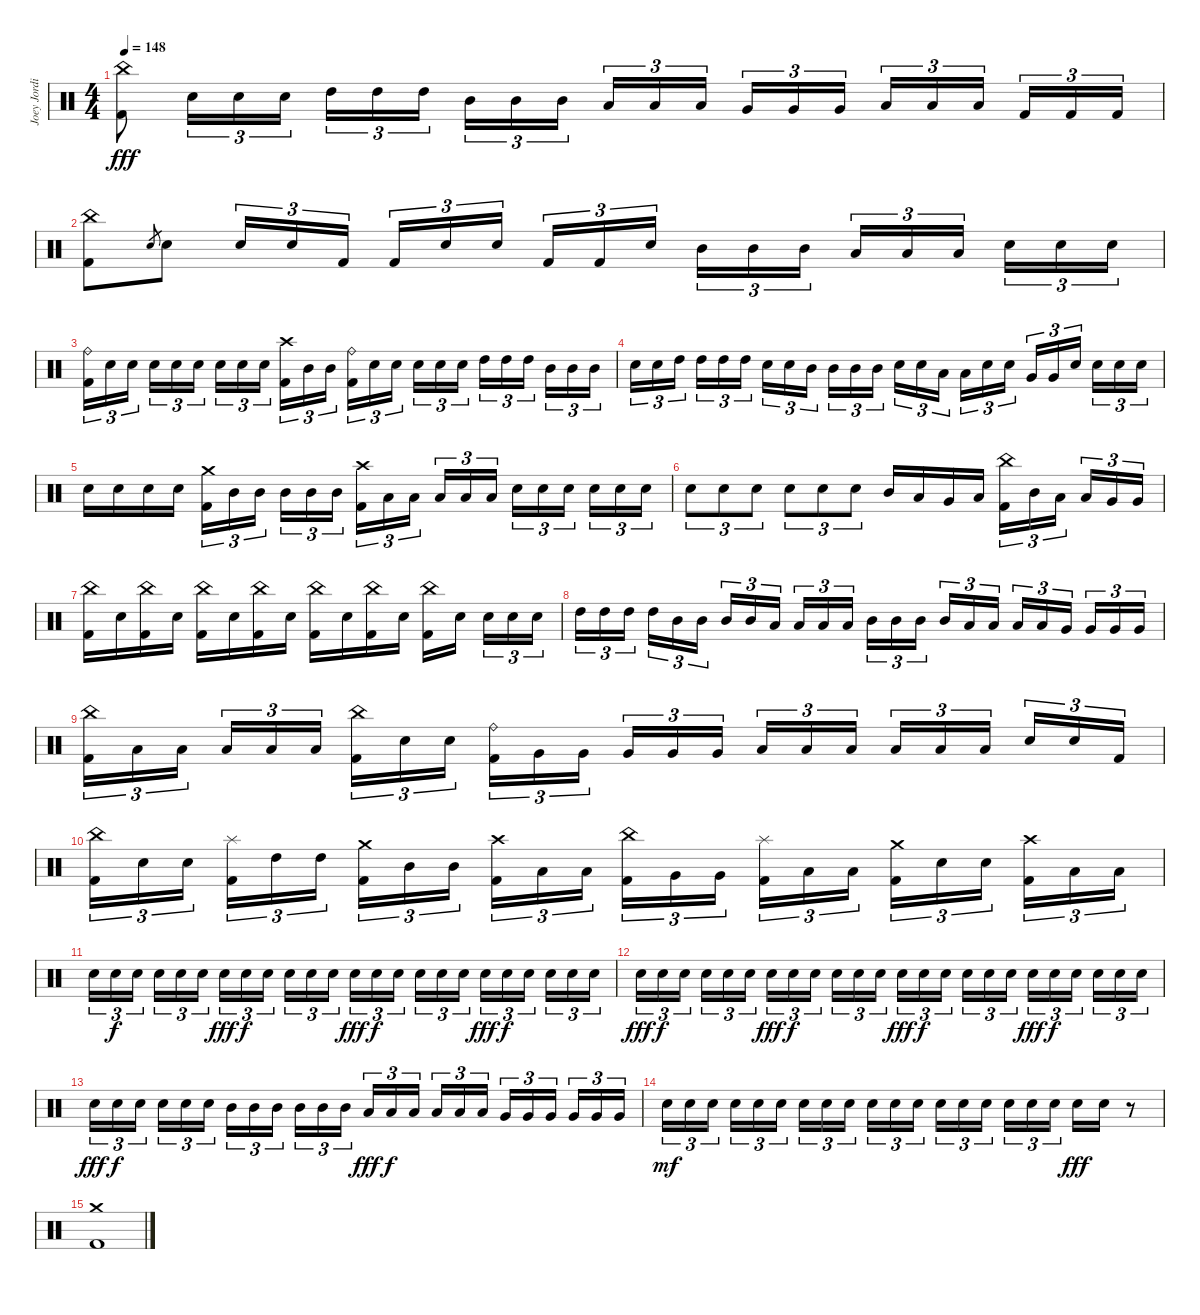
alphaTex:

\track ("Joey Jordison" "Joey Jordi") {instrument percussion}
\staff {score}
\articulation defaults
\ts (4 4)
\tempo 148
\clef neutral
\ks c
("China (hit)" "Kick (hit) 2").8{dy fff} "Electric Snare (hit)".16{tu (3 2)} "Electric Snare (hit)".16{tu (3 2)} "Electric Snare (hit)".16{tu (3 2)} "High Tom (hit)".16{tu (3 2)} "High Tom (hit)".16{tu (3 2)} "High Tom (hit)".16{tu (3 2) beam splitsecondary} "Mid Tom (hit)".16{tu (3 2)} "Mid Tom (hit)".16{tu (3 2)} "Mid Tom (hit)".16{tu (3 2)} "Low Tom (hit)".16{tu (3 2)} "Low Tom (hit)".16{tu (3 2)} "Low Tom (hit)".16{tu (3 2) beam splitsecondary} "Very Low Tom (hit)".16{tu (3 2)} "Very Low Tom (hit)".16{tu (3 2)} "Very Low Tom (hit)".16{tu (3 2)} "Low Floor Tom (hit)".16{tu (3 2)} "Low Floor Tom (hit)".16{tu (3 2)} "Low Floor Tom (hit)".16{tu (3 2) beam splitsecondary} "Kick (hit) 2".16{tu (3 2)} "Kick (hit) 2".16{tu (3 2)} "Kick (hit) 2".16{tu (3 2)} |
("China (hit)" "Kick (hit) 2").8 "Electric Snare (hit)".8{gr} "Electric Snare (hit)".8 "Electric Snare (hit)".16{tu (3 2)} "Electric Snare (hit)".16{tu (3 2)} "Kick (hit) 2".16{tu (3 2) beam splitsecondary} "Kick (hit) 2".16{tu (3 2)} "Electric Snare (hit)".16{tu (3 2)} "Electric Snare (hit)".16{tu (3 2)} "Kick (hit) 2".16{tu (3 2)} "Kick (hit) 2".16{tu (3 2)} "Electric Snare (hit)".16{tu (3 2) beam splitsecondary} "Mid Tom (hit)".16{tu (3 2)} "Mid Tom (hit)".16{tu (3 2)} "Mid Tom (hit)".16{tu (3 2)} "Low Tom (hit)".16{tu (3 2)} "Low Tom (hit)".16{tu (3 2)} "Low Tom (hit)".16{tu (3 2) beam splitsecondary} "Electric Snare (hit)".16{tu (3 2)} "Electric Snare (hit)".16{tu (3 2)} "Electric Snare (hit)".16{tu (3 2)} |
("Ride (bell)" "Kick (hit) 2").16{tu (3 2)} "Electric Snare (hit)".16{tu (3 2)} "Electric Snare (hit)".16{tu (3 2) beam splitsecondary} "Electric Snare (hit)".16{tu (3 2)} "Electric Snare (hit)".16{tu (3 2)} "Electric Snare (hit)".16{tu (3 2)} "Electric Snare (hit)".16{tu (3 2)} "Electric Snare (hit)".16{tu (3 2)} "Electric Snare (hit)".16{tu (3 2) beam splitsecondary} ("Crash high (hit)" "Kick (hit) 2").16{tu (3 2)} "Mid Tom (hit)".16{tu (3 2)} "Mid Tom (hit)".16{tu (3 2)} ("Ride (bell)" "Kick (hit) 2").16{tu (3 2)} "Electric Snare (hit)".16{tu (3 2)} "Electric Snare (hit)".16{tu (3 2) beam splitsecondary} "Electric Snare (hit)".16{tu (3 2)} "Electric Snare (hit)".16{tu (3 2)} "Electric Snare (hit)".16{tu (3 2)} "High Tom (hit)".16{tu (3 2)} "High Tom (hit)".16{tu (3 2)} "High Tom (hit)".16{tu (3 2) beam splitsecondary} "Mid Tom (hit)".16{tu (3 2)} "Mid Tom (hit)".16{tu (3 2)} "Mid Tom (hit)".16{tu (3 2)} |
"Electric Snare (hit)".16{tu (3 2)} "Electric Snare (hit)".16{tu (3 2)} "High Tom (hit)".16{tu (3 2) beam splitsecondary} "High Tom (hit)".16{tu (3 2)} "High Tom (hit)".16{tu (3 2)} "High Tom (hit)".16{tu (3 2)} "Electric Snare (hit)".16{tu (3 2)} "Electric Snare (hit)".16{tu (3 2)} "Mid Tom (hit)".16{tu (3 2) beam splitsecondary} "Mid Tom (hit)".16{tu (3 2)} "Mid Tom (hit)".16{tu (3 2)} "Mid Tom (hit)".16{tu (3 2)} "Electric Snare (hit)".16{tu (3 2)} "Electric Snare (hit)".16{tu (3 2)} "Low Tom (hit)".16{tu (3 2) beam splitsecondary} "Low Tom (hit)".16{tu (3 2)} "Electric Snare (hit)".16{tu (3 2)} "Electric Snare (hit)".16{tu (3 2)} "Very Low Tom (hit)".16{tu (3 2)} "Very Low Tom (hit)".16{tu (3 2)} "Electric Snare (hit)".16{tu (3 2) beam splitsecondary} "Electric Snare (hit)".16{tu (3 2)} "Electric Snare (hit)".16{tu (3 2)} "Electric Snare (hit)".16{tu (3 2)} |
"Electric Snare (hit)".16 "Electric Snare (hit)".16 "Electric Snare (hit)".16 "Electric Snare (hit)".16 ("Crash medium (hit)" "Kick (hit) 2").16{tu (3 2)} "Mid Tom (hit)".16{tu (3 2)} "Mid Tom (hit)".16{tu (3 2) beam splitsecondary} "Mid Tom (hit)".16{tu (3 2)} "Mid Tom (hit)".16{tu (3 2)} "Mid Tom (hit)".16{tu (3 2)} ("Crash high (hit)" "Kick (hit) 2").16{tu (3 2)} "Low Tom (hit)".16{tu (3 2)} "Low Tom (hit)".16{tu (3 2) beam splitsecondary} "Low Tom (hit)".16{tu (3 2)} "Low Tom (hit)".16{tu (3 2)} "Low Tom (hit)".16{tu (3 2)} "Electric Snare (hit)".16{tu (3 2)} "Electric Snare (hit)".16{tu (3 2)} "Electric Snare (hit)".16{tu (3 2) beam splitsecondary} "Electric Snare (hit)".16{tu (3 2)} "Electric Snare (hit)".16{tu (3 2)} "Electric Snare (hit)".16{tu (3 2)} |
"Electric Snare (hit)".8{tu (3 2)} "Electric Snare (hit)".8{tu (3 2)} "Electric Snare (hit)".8{tu (3 2)} "Electric Snare (hit)".8{tu (3 2)} "Electric Snare (hit)".8{tu (3 2)} "Electric Snare (hit)".8{tu (3 2)} "Mid Tom (hit)".16 "Low Tom (hit)".16 "Very Low Tom (hit)".16 "Low Floor Tom (hit)".16 ("China (hit)" "Kick (hit) 2").16{tu (3 2)} "Mid Tom (hit)".16{tu (3 2)} "Low Tom (hit)".16{tu (3 2) beam splitsecondary} "Low Tom (hit)".16{tu (3 2)} "Very Low Tom (hit)".16{tu (3 2)} "Very Low Tom (hit)".16{tu (3 2)} |
("China (hit)" "Kick (hit) 2").16 "Electric Snare (hit)".16 ("China (hit)" "Kick (hit) 2").16 "Electric Snare (hit)".16 ("China (hit)" "Kick (hit) 2").16 "Electric Snare (hit)".16 ("China (hit)" "Kick (hit) 2").16 "Electric Snare (hit)".16 ("China (hit)" "Kick (hit) 2").16 "Electric Snare (hit)".16 ("China (hit)" "Kick (hit) 2").16 "Electric Snare (hit)".16 ("China (hit)" "Kick (hit) 2").16 "Electric Snare (hit)".16{beam splitsecondary} "Electric Snare (hit)".16{tu (3 2)} "Electric Snare (hit)".16{tu (3 2)} "Electric Snare (hit)".16{tu (3 2)} |
"High Tom (hit)".16{tu (3 2)} "High Tom (hit)".16{tu (3 2)} "High Tom (hit)".16{tu (3 2) beam splitsecondary} "High Tom (hit)".16{tu (3 2)} "Mid Tom (hit)".16{tu (3 2)} "Mid Tom (hit)".16{tu (3 2)} "Mid Tom (hit)".16{tu (3 2)} "Mid Tom (hit)".16{tu (3 2)} "Low Tom (hit)".16{tu (3 2) beam splitsecondary} "Low Tom (hit)".16{tu (3 2)} "Low Tom (hit)".16{tu (3 2)} "Low Tom (hit)".16{tu (3 2)} "Mid Tom (hit)".16{tu (3 2)} "Mid Tom (hit)".16{tu (3 2)} "Mid Tom (hit)".16{tu (3 2) beam splitsecondary} "Mid Tom (hit)".16{tu (3 2)} "Low Tom (hit)".16{tu (3 2)} "Low Tom (hit)".16{tu (3 2)} "Low Tom (hit)".16{tu (3 2)} "Low Tom (hit)".16{tu (3 2)} "Very Low Tom (hit)".16{tu (3 2) beam splitsecondary} "Very Low Tom (hit)".16{tu (3 2)} "Very Low Tom (hit)".16{tu (3 2)} "Very Low Tom (hit)".16{tu (3 2)} |
("China (hit)" "Kick (hit) 2").16{tu (3 2)} "Low Tom (hit)".16{tu (3 2)} "Low Tom (hit)".16{tu (3 2) beam splitsecondary} "Low Tom (hit)".16{tu (3 2)} "Low Tom (hit)".16{tu (3 2)} "Low Tom (hit)".16{tu (3 2)} ("China (hit)" "Kick (hit) 2").16{tu (3 2)} "Electric Snare (hit)".16{tu (3 2)} "Electric Snare (hit)".16{tu (3 2) beam splitsecondary} ("Ride (bell)" "Kick (hit) 2").16{tu (3 2)} "Very Low Tom (hit)".16{tu (3 2)} "Very Low Tom (hit)".16{tu (3 2)} "Very Low Tom (hit)".16{tu (3 2)} "Very Low Tom (hit)".16{tu (3 2)} "Very Low Tom (hit)".16{tu (3 2) beam splitsecondary} "Low Floor Tom (hit)".16{tu (3 2)} "Low Floor Tom (hit)".16{tu (3 2)} "Low Floor Tom (hit)".16{tu (3 2)} "Low Tom (hit)".16{tu (3 2)} "Low Tom (hit)".16{tu (3 2)} "Low Tom (hit)".16{tu (3 2) beam splitsecondary} "Electric Snare (hit)".16{tu (3 2)} "Electric Snare (hit)".16{tu (3 2)} "Kick (hit) 2".16{tu (3 2)} |
("China (hit)" "Kick (hit) 2").16{tu (3 2)} "Electric Snare (hit)".16{tu (3 2)} "Electric Snare (hit)".16{tu (3 2) beam splitsecondary} ("Splash (hit)" "Kick (hit) 2").16{tu (3 2)} "High Tom (hit)".16{tu (3 2)} "High Tom (hit)".16{tu (3 2)} ("Crash medium (hit)" "Kick (hit) 2").16{tu (3 2)} "Mid Tom (hit)".16{tu (3 2)} "Mid Tom (hit)".16{tu (3 2) beam splitsecondary} ("Crash high (hit)" "Kick (hit) 2").16{tu (3 2)} "Low Tom (hit)".16{tu (3 2)} "Low Tom (hit)".16{tu (3 2)} ("China (hit)" "Kick (hit) 2").16{tu (3 2)} "Very Low Tom (hit)".16{tu (3 2)} "Very Low Tom (hit)".16{tu (3 2) beam splitsecondary} ("Splash (hit)" "Kick (hit) 2").16{tu (3 2)} "Low Floor Tom (hit)".16{tu (3 2)} "Low Floor Tom (hit)".16{tu (3 2)} ("Crash medium (hit)" "Kick (hit) 2").16{tu (3 2)} "Electric Snare (hit)".16{tu (3 2)} "Electric Snare (hit)".16{tu (3 2) beam splitsecondary} ("Crash high (hit)" "Kick (hit) 2").16{tu (3 2)} "Low Tom (hit)".16{tu (3 2)} "Low Tom (hit)".16{tu (3 2)} |
"Electric Snare (hit)".16{tu (3 2)} "Electric Snare (hit)".16{tu (3 2) dy f} "Electric Snare (hit)".16{tu (3 2) beam splitsecondary} "Electric Snare (hit)".16{tu (3 2)} "Electric Snare (hit)".16{tu (3 2)} "Electric Snare (hit)".16{tu (3 2)} "Electric Snare (hit)".16{tu (3 2) dy fff} "Electric Snare (hit)".16{tu (3 2) dy f} "Electric Snare (hit)".16{tu (3 2) beam splitsecondary} "Electric Snare (hit)".16{tu (3 2)} "Electric Snare (hit)".16{tu (3 2)} "Electric Snare (hit)".16{tu (3 2)} "Electric Snare (hit)".16{tu (3 2) dy fff} "Electric Snare (hit)".16{tu (3 2) dy f} "Electric Snare (hit)".16{tu (3 2) beam splitsecondary} "Electric Snare (hit)".16{tu (3 2)} "Electric Snare (hit)".16{tu (3 2)} "Electric Snare (hit)".16{tu (3 2)} "Electric Snare (hit)".16{tu (3 2) dy fff} "Electric Snare (hit)".16{tu (3 2) dy f} "Electric Snare (hit)".16{tu (3 2) beam splitsecondary} "Electric Snare (hit)".16{tu (3 2)} "Electric Snare (hit)".16{tu (3 2)} "Electric Snare (hit)".16{tu (3 2)} |
"Electric Snare (hit)".16{tu (3 2) dy fff} "Electric Snare (hit)".16{tu (3 2) dy f} "Electric Snare (hit)".16{tu (3 2) beam splitsecondary} "Electric Snare (hit)".16{tu (3 2)} "Electric Snare (hit)".16{tu (3 2)} "Electric Snare (hit)".16{tu (3 2)} "Electric Snare (hit)".16{tu (3 2) dy fff} "Electric Snare (hit)".16{tu (3 2) dy f} "Electric Snare (hit)".16{tu (3 2) beam splitsecondary} "Electric Snare (hit)".16{tu (3 2)} "Electric Snare (hit)".16{tu (3 2)} "Electric Snare (hit)".16{tu (3 2)} "Electric Snare (hit)".16{tu (3 2) dy fff} "Electric Snare (hit)".16{tu (3 2) dy f} "Electric Snare (hit)".16{tu (3 2) beam splitsecondary} "Electric Snare (hit)".16{tu (3 2)} "Electric Snare (hit)".16{tu (3 2)} "Electric Snare (hit)".16{tu (3 2)} "Electric Snare (hit)".16{tu (3 2) dy fff} "Electric Snare (hit)".16{tu (3 2) dy f} "Electric Snare (hit)".16{tu (3 2) beam splitsecondary} "Electric Snare (hit)".16{tu (3 2)} "Electric Snare (hit)".16{tu (3 2)} "Electric Snare (hit)".16{tu (3 2)} |
"Electric Snare (hit)".16{tu (3 2) dy fff} "Electric Snare (hit)".16{tu (3 2) dy f} "Electric Snare (hit)".16{tu (3 2) beam splitsecondary} "Electric Snare (hit)".16{tu (3 2)} "Electric Snare (hit)".16{tu (3 2)} "Electric Snare (hit)".16{tu (3 2)} "Mid Tom (hit)".16{tu (3 2)} "Mid Tom (hit)".16{tu (3 2)} "Mid Tom (hit)".16{tu (3 2) beam splitsecondary} "Mid Tom (hit)".16{tu (3 2)} "Mid Tom (hit)".16{tu (3 2)} "Mid Tom (hit)".16{tu (3 2)} "Low Tom (hit)".16{tu (3 2) dy fff} "Low Tom (hit)".16{tu (3 2) dy f} "Low Tom (hit)".16{tu (3 2) beam splitsecondary} "Low Tom (hit)".16{tu (3 2)} "Low Tom (hit)".16{tu (3 2)} "Low Tom (hit)".16{tu (3 2)} "Very Low Tom (hit)".16{tu (3 2)} "Very Low Tom (hit)".16{tu (3 2)} "Very Low Tom (hit)".16{tu (3 2) beam splitsecondary} "Very Low Tom (hit)".16{tu (3 2)} "Very Low Tom (hit)".16{tu (3 2)} "Very Low Tom (hit)".16{tu (3 2)} |
"Electric Snare (hit)".16{tu (3 2) dy mf} "Electric Snare (hit)".16{tu (3 2)} "Electric Snare (hit)".16{tu (3 2) beam splitsecondary} "Electric Snare (hit)".16{tu (3 2)} "Electric Snare (hit)".16{tu (3 2)} "Electric Snare (hit)".16{tu (3 2)} "Electric Snare (hit)".16{tu (3 2)} "Electric Snare (hit)".16{tu (3 2)} "Electric Snare (hit)".16{tu (3 2) beam splitsecondary} "Electric Snare (hit)".16{tu (3 2)} "Electric Snare (hit)".16{tu (3 2)} "Electric Snare (hit)".16{tu (3 2)} "Electric Snare (hit)".16{tu (3 2)} "Electric Snare (hit)".16{tu (3 2)} "Electric Snare (hit)".16{tu (3 2) beam splitsecondary} "Electric Snare (hit)".16{tu (3 2)} "Electric Snare (hit)".16{tu (3 2)} "Electric Snare (hit)".16{tu (3 2)} "Electric Snare (hit)".16{dy fff} "Electric Snare (hit)".16 r.8 |
("Crash medium (hit)" "Kick (hit) 2").1
